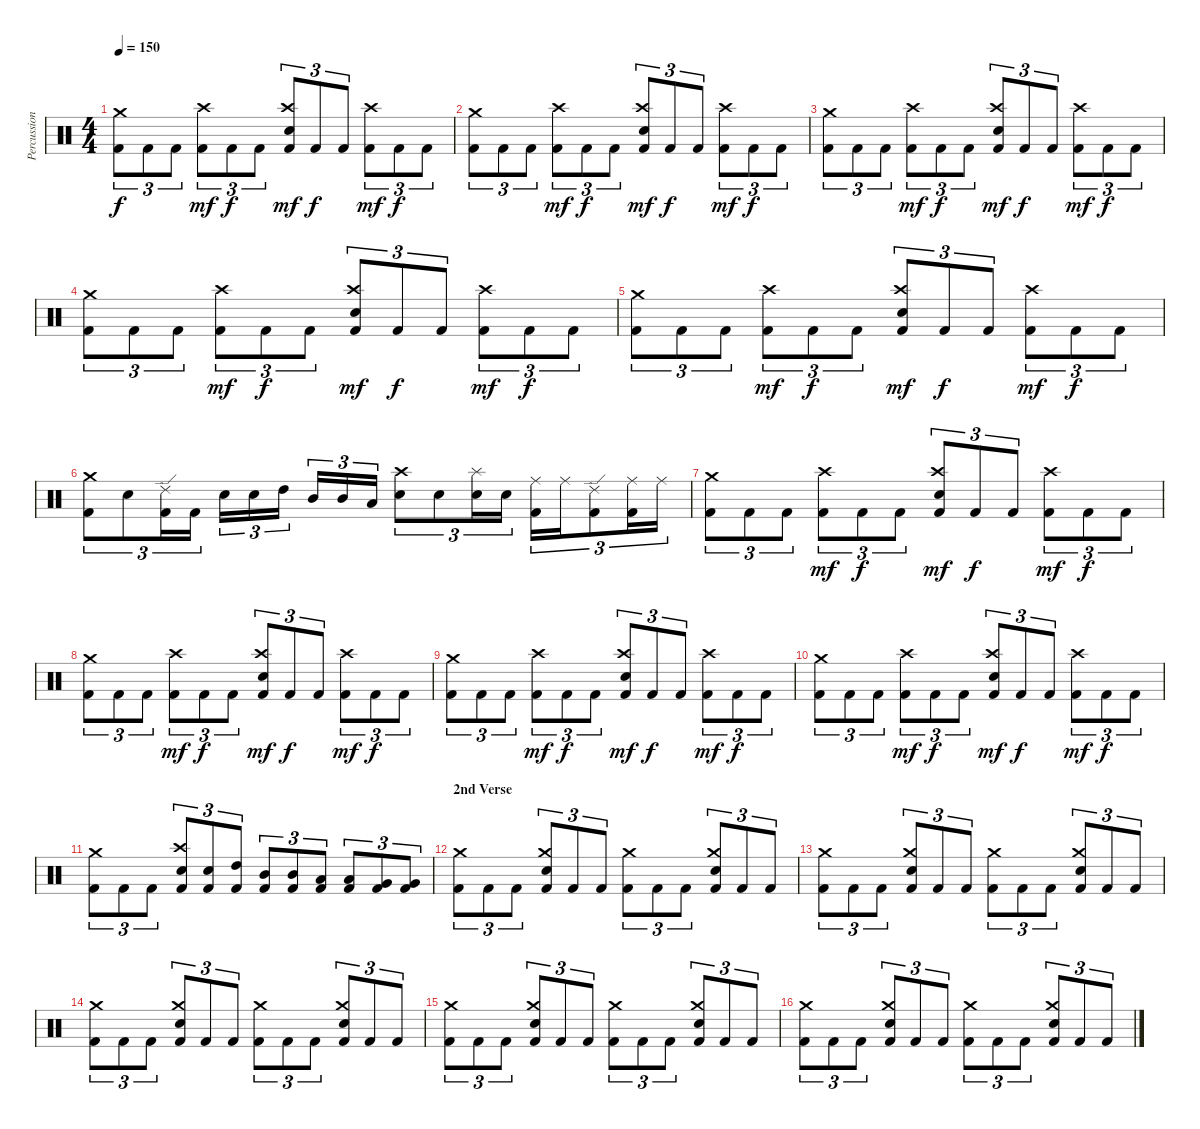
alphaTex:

\track ("Percussion" "Percussion") {instrument percussion}
\staff {score}
\articulation defaults
\ts (4 4)
\tempo 150
\clef neutral
\ks c
("Kick (hit) 2" "Crash medium (hit)").8{tu (3 2) dy f} "Kick (hit) 2".8{tu (3 2)} "Kick (hit) 2".8{tu (3 2)} ("Kick (hit) 2" "Crash high (hit)").8{tu (3 2) dy mf} "Kick (hit) 2".8{tu (3 2) dy f} "Kick (hit) 2".8{tu (3 2)} ("Kick (hit) 2" "Electric Snare (hit)" "Crash high (hit)").8{tu (3 2) dy mf} "Kick (hit) 2".8{tu (3 2) dy f} "Kick (hit) 2".8{tu (3 2)} ("Kick (hit) 2" "Crash high (hit)").8{tu (3 2) dy mf} "Kick (hit) 2".8{tu (3 2) dy f} "Kick (hit) 2".8{tu (3 2)} |
("Kick (hit) 2" "Crash medium (hit)").8{tu (3 2)} "Kick (hit) 2".8{tu (3 2)} "Kick (hit) 2".8{tu (3 2)} ("Kick (hit) 2" "Crash high (hit)").8{tu (3 2) dy mf} "Kick (hit) 2".8{tu (3 2) dy f} "Kick (hit) 2".8{tu (3 2)} ("Kick (hit) 2" "Electric Snare (hit)" "Crash high (hit)").8{tu (3 2) dy mf} "Kick (hit) 2".8{tu (3 2) dy f} "Kick (hit) 2".8{tu (3 2)} ("Kick (hit) 2" "Crash high (hit)").8{tu (3 2) dy mf} "Kick (hit) 2".8{tu (3 2) dy f} "Kick (hit) 2".8{tu (3 2)} |
("Kick (hit) 2" "Crash medium (hit)").8{tu (3 2)} "Kick (hit) 2".8{tu (3 2)} "Kick (hit) 2".8{tu (3 2)} ("Kick (hit) 2" "Crash high (hit)").8{tu (3 2) dy mf} "Kick (hit) 2".8{tu (3 2) dy f} "Kick (hit) 2".8{tu (3 2)} ("Kick (hit) 2" "Electric Snare (hit)" "Crash high (hit)").8{tu (3 2) dy mf} "Kick (hit) 2".8{tu (3 2) dy f} "Kick (hit) 2".8{tu (3 2)} ("Kick (hit) 2" "Crash high (hit)").8{tu (3 2) dy mf} "Kick (hit) 2".8{tu (3 2) dy f} "Kick (hit) 2".8{tu (3 2)} |
("Kick (hit) 2" "Crash medium (hit)").8{tu (3 2)} "Kick (hit) 2".8{tu (3 2)} "Kick (hit) 2".8{tu (3 2)} ("Kick (hit) 2" "Crash high (hit)").8{tu (3 2) dy mf} "Kick (hit) 2".8{tu (3 2) dy f} "Kick (hit) 2".8{tu (3 2)} ("Kick (hit) 2" "Electric Snare (hit)" "Crash high (hit)").8{tu (3 2) dy mf} "Kick (hit) 2".8{tu (3 2) dy f} "Kick (hit) 2".8{tu (3 2)} ("Kick (hit) 2" "Crash high (hit)").8{tu (3 2) dy mf} "Kick (hit) 2".8{tu (3 2) dy f} "Kick (hit) 2".8{tu (3 2)} |
("Kick (hit) 2" "Crash medium (hit)").8{tu (3 2)} "Kick (hit) 2".8{tu (3 2)} "Kick (hit) 2".8{tu (3 2)} ("Kick (hit) 2" "Crash high (hit)").8{tu (3 2) dy mf} "Kick (hit) 2".8{tu (3 2) dy f} "Kick (hit) 2".8{tu (3 2)} ("Kick (hit) 2" "Electric Snare (hit)" "Crash high (hit)").8{tu (3 2) dy mf} "Kick (hit) 2".8{tu (3 2) dy f} "Kick (hit) 2".8{tu (3 2)} ("Kick (hit) 2" "Crash high (hit)").8{tu (3 2) dy mf} "Kick (hit) 2".8{tu (3 2) dy f} "Kick (hit) 2".8{tu (3 2)} |
("Kick (hit) 2" "Crash medium (hit)").8{tu (3 2)} "Electric Snare (hit)".8{tu (3 2)} ("Kick (hit) 2" "Ride (edge) 2").16{tu (3 2)} "Kick (hit) 2".16{tu (3 2)} "Electric Snare (hit)".16{tu (3 2)} "Electric Snare (hit)".16{tu (3 2)} "High Tom (hit)".16{tu (3 2)} "Mid Tom (hit)".16{tu (3 2)} "Mid Tom (hit)".16{tu (3 2)} "Low Tom (hit)".16{tu (3 2)} ("Electric Snare (hit)" "Crash high (hit)").8{tu (3 2)} "Electric Snare (hit)".8{tu (3 2)} ("Electric Snare (hit)" "Splash (hit)").16{tu (3 2)} "Electric Snare (hit)".16{tu (3 2)} ("Kick (hit) 2" "Ride (middle)").16{tu (3 2)} "Ride (middle)".16{tu (3 2)} ("Kick (hit) 2" "Ride (edge) 2").8{tu (3 2)} ("Kick (hit) 2" "Ride (middle)").16{tu (3 2)} "Ride (middle)".16{tu (3 2)} |
("Kick (hit) 2" "Crash medium (hit)").8{tu (3 2)} "Kick (hit) 2".8{tu (3 2)} "Kick (hit) 2".8{tu (3 2)} ("Kick (hit) 2" "Crash high (hit)").8{tu (3 2) dy mf} "Kick (hit) 2".8{tu (3 2) dy f} "Kick (hit) 2".8{tu (3 2)} ("Kick (hit) 2" "Electric Snare (hit)" "Crash high (hit)").8{tu (3 2) dy mf} "Kick (hit) 2".8{tu (3 2) dy f} "Kick (hit) 2".8{tu (3 2)} ("Kick (hit) 2" "Crash high (hit)").8{tu (3 2) dy mf} "Kick (hit) 2".8{tu (3 2) dy f} "Kick (hit) 2".8{tu (3 2)} |
("Kick (hit) 2" "Crash medium (hit)").8{tu (3 2)} "Kick (hit) 2".8{tu (3 2)} "Kick (hit) 2".8{tu (3 2)} ("Kick (hit) 2" "Crash high (hit)").8{tu (3 2) dy mf} "Kick (hit) 2".8{tu (3 2) dy f} "Kick (hit) 2".8{tu (3 2)} ("Kick (hit) 2" "Electric Snare (hit)" "Crash high (hit)").8{tu (3 2) dy mf} "Kick (hit) 2".8{tu (3 2) dy f} "Kick (hit) 2".8{tu (3 2)} ("Kick (hit) 2" "Crash high (hit)").8{tu (3 2) dy mf} "Kick (hit) 2".8{tu (3 2) dy f} "Kick (hit) 2".8{tu (3 2)} |
("Kick (hit) 2" "Crash medium (hit)").8{tu (3 2)} "Kick (hit) 2".8{tu (3 2)} "Kick (hit) 2".8{tu (3 2)} ("Kick (hit) 2" "Crash high (hit)").8{tu (3 2) dy mf} "Kick (hit) 2".8{tu (3 2) dy f} "Kick (hit) 2".8{tu (3 2)} ("Kick (hit) 2" "Electric Snare (hit)" "Crash high (hit)").8{tu (3 2) dy mf} "Kick (hit) 2".8{tu (3 2) dy f} "Kick (hit) 2".8{tu (3 2)} ("Kick (hit) 2" "Crash high (hit)").8{tu (3 2) dy mf} "Kick (hit) 2".8{tu (3 2) dy f} "Kick (hit) 2".8{tu (3 2)} |
("Kick (hit) 2" "Crash medium (hit)").8{tu (3 2)} "Kick (hit) 2".8{tu (3 2)} "Kick (hit) 2".8{tu (3 2)} ("Kick (hit) 2" "Crash high (hit)").8{tu (3 2) dy mf} "Kick (hit) 2".8{tu (3 2) dy f} "Kick (hit) 2".8{tu (3 2)} ("Kick (hit) 2" "Electric Snare (hit)" "Crash high (hit)").8{tu (3 2) dy mf} "Kick (hit) 2".8{tu (3 2) dy f} "Kick (hit) 2".8{tu (3 2)} ("Kick (hit) 2" "Crash high (hit)").8{tu (3 2) dy mf} "Kick (hit) 2".8{tu (3 2) dy f} "Kick (hit) 2".8{tu (3 2)} |
("Kick (hit) 2" "Crash medium (hit)").8{tu (3 2)} "Kick (hit) 2".8{tu (3 2)} "Kick (hit) 2".8{tu (3 2)} ("Kick (hit) 2" "Electric Snare (hit)" "Crash high (hit)").8{tu (3 2)} ("Kick (hit) 2" "Electric Snare (hit)").8{tu (3 2)} ("Kick (hit) 2" "High Tom (hit)").8{tu (3 2)} ("Kick (hit) 2" "Mid Tom (hit)").8{tu (3 2)} ("Kick (hit) 2" "Mid Tom (hit)").8{tu (3 2)} ("Kick (hit) 2" "Low Tom (hit)").8{tu (3 2)} ("Kick (hit) 2" "Low Tom (hit)").8{tu (3 2)} ("Kick (hit) 2" "Very Low Tom (hit)").8{tu (3 2)} ("Kick (hit) 2" "Very Low Tom (hit)").8{tu (3 2)} |
\section ("" "2nd Verse")
("Kick (hit) 2" "Crash medium (hit)").8{tu (3 2)} "Kick (hit) 2".8{tu (3 2)} "Kick (hit) 2".8{tu (3 2)} ("Kick (hit) 2" "Electric Snare (hit)" "Crash medium (hit)").8{tu (3 2)} "Kick (hit) 2".8{tu (3 2)} "Kick (hit) 2".8{tu (3 2)} ("Kick (hit) 2" "Crash medium (hit)").8{tu (3 2)} "Kick (hit) 2".8{tu (3 2)} "Kick (hit) 2".8{tu (3 2)} ("Kick (hit) 2" "Electric Snare (hit)" "Crash medium (hit)").8{tu (3 2)} "Kick (hit) 2".8{tu (3 2)} "Kick (hit) 2".8{tu (3 2)} |
("Kick (hit) 2" "Crash medium (hit)").8{tu (3 2)} "Kick (hit) 2".8{tu (3 2)} "Kick (hit) 2".8{tu (3 2)} ("Kick (hit) 2" "Electric Snare (hit)" "Crash medium (hit)").8{tu (3 2)} "Kick (hit) 2".8{tu (3 2)} "Kick (hit) 2".8{tu (3 2)} ("Kick (hit) 2" "Crash medium (hit)").8{tu (3 2)} "Kick (hit) 2".8{tu (3 2)} "Kick (hit) 2".8{tu (3 2)} ("Kick (hit) 2" "Electric Snare (hit)" "Crash medium (hit)").8{tu (3 2)} "Kick (hit) 2".8{tu (3 2)} "Kick (hit) 2".8{tu (3 2)} |
("Kick (hit) 2" "Crash medium (hit)").8{tu (3 2)} "Kick (hit) 2".8{tu (3 2)} "Kick (hit) 2".8{tu (3 2)} ("Kick (hit) 2" "Electric Snare (hit)" "Crash medium (hit)").8{tu (3 2)} "Kick (hit) 2".8{tu (3 2)} "Kick (hit) 2".8{tu (3 2)} ("Kick (hit) 2" "Crash medium (hit)").8{tu (3 2)} "Kick (hit) 2".8{tu (3 2)} "Kick (hit) 2".8{tu (3 2)} ("Kick (hit) 2" "Electric Snare (hit)" "Crash medium (hit)").8{tu (3 2)} "Kick (hit) 2".8{tu (3 2)} "Kick (hit) 2".8{tu (3 2)} |
("Kick (hit) 2" "Crash medium (hit)").8{tu (3 2)} "Kick (hit) 2".8{tu (3 2)} "Kick (hit) 2".8{tu (3 2)} ("Kick (hit) 2" "Electric Snare (hit)" "Crash medium (hit)").8{tu (3 2)} "Kick (hit) 2".8{tu (3 2)} "Kick (hit) 2".8{tu (3 2)} ("Kick (hit) 2" "Crash medium (hit)").8{tu (3 2)} "Kick (hit) 2".8{tu (3 2)} "Kick (hit) 2".8{tu (3 2)} ("Kick (hit) 2" "Electric Snare (hit)" "Crash medium (hit)").8{tu (3 2)} "Kick (hit) 2".8{tu (3 2)} "Kick (hit) 2".8{tu (3 2)} |
("Kick (hit) 2" "Crash medium (hit)").8{tu (3 2)} "Kick (hit) 2".8{tu (3 2)} "Kick (hit) 2".8{tu (3 2)} ("Kick (hit) 2" "Electric Snare (hit)" "Crash medium (hit)").8{tu (3 2)} "Kick (hit) 2".8{tu (3 2)} "Kick (hit) 2".8{tu (3 2)} ("Kick (hit) 2" "Crash medium (hit)").8{tu (3 2)} "Kick (hit) 2".8{tu (3 2)} "Kick (hit) 2".8{tu (3 2)} ("Kick (hit) 2" "Electric Snare (hit)" "Crash medium (hit)").8{tu (3 2)} "Kick (hit) 2".8{tu (3 2)} "Kick (hit) 2".8{tu (3 2)}
